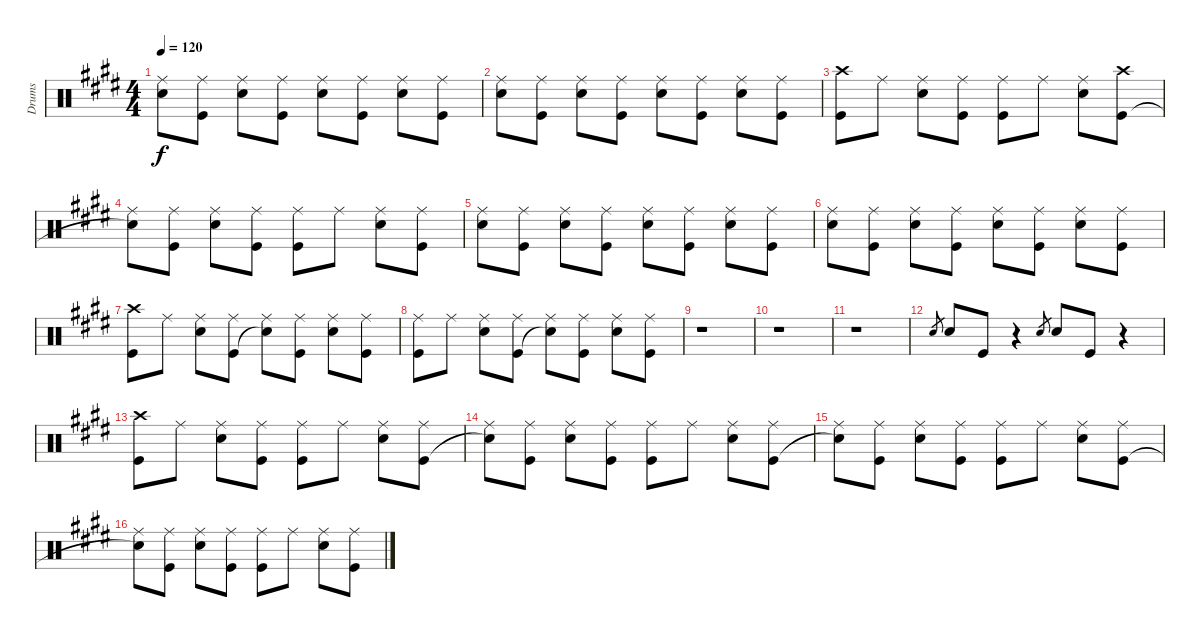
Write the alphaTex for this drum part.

\track ("Drums" "Drums") {instrument percussion}
\staff {score}
\articulation defaults
\ts (4 4)
\tempo 120
\clef neutral
\ks e
("Ride (middle)" "Snare (hit) 2").8{dy f} ("Ride (middle)" "Kick (hit)").8 ("Ride (middle)" "Snare (hit) 2").8 ("Ride (middle)" "Kick (hit)").8 ("Ride (middle)" "Snare (hit) 2").8 ("Ride (middle)" "Kick (hit)").8 ("Ride (middle)" "Snare (hit) 2").8 ("Ride (middle)" "Kick (hit)").8 |
("Ride (middle)" "Snare (hit) 2").8 ("Ride (middle)" "Kick (hit)").8 ("Ride (middle)" "Snare (hit) 2").8 ("Ride (middle)" "Kick (hit)").8 ("Ride (middle)" "Snare (hit) 2").8 ("Ride (middle)" "Kick (hit)").8 ("Ride (middle)" "Snare (hit) 2").8 ("Ride (middle)" "Kick (hit)").8 |
("Crash high (hit)" "Kick (hit)").8 "Ride (middle)".8 ("Ride (middle)" "Snare (hit) 2").8 ("Ride (middle)" "Kick (hit)").8 ("Ride (middle)" "Kick (hit)").8 "Ride (middle)".8 ("Ride (middle)" "Snare (hit) 2").8 ("Crash high (hit)" "Kick (hit)").8 |
("Ride (middle)" "Snare (hit)"{t}).8 ("Ride (middle)" "Kick (hit)").8 ("Ride (middle)" "Snare (hit) 2").8 ("Ride (middle)" "Kick (hit)").8 ("Ride (middle)" "Kick (hit)").8 "Ride (middle)".8 ("Ride (middle)" "Snare (hit) 2").8 ("Ride (middle)" "Kick (hit)").8 |
("Ride (middle)" "Snare (hit) 2").8 ("Ride (middle)" "Kick (hit)").8 ("Ride (middle)" "Snare (hit) 2").8 ("Ride (middle)" "Kick (hit)").8 ("Ride (middle)" "Snare (hit) 2").8 ("Ride (middle)" "Kick (hit)").8 ("Ride (middle)" "Snare (hit) 2").8 ("Ride (middle)" "Kick (hit)").8 |
("Ride (middle)" "Snare (hit) 2").8 ("Ride (middle)" "Kick (hit)").8 ("Ride (middle)" "Snare (hit) 2").8 ("Ride (middle)" "Kick (hit)").8 ("Ride (middle)" "Snare (hit) 2").8 ("Ride (middle)" "Kick (hit)").8 ("Ride (middle)" "Snare (hit) 2").8 ("Ride (middle)" "Kick (hit)").8 |
("Crash high (hit)" "Kick (hit)").8 "Ride (middle)".8 ("Ride (middle)" "Snare (hit) 2").8 ("Ride (middle)" "Kick (hit)").8 ("Ride (middle)" "Snare (hit)"{t}).8 ("Ride (middle)" "Kick (hit)").8 ("Ride (middle)" "Snare (hit) 2").8 ("Ride (middle)" "Kick (hit)").8 |
("Ride (middle)" "Kick (hit)").8 "Ride (middle)".8 ("Ride (middle)" "Snare (hit) 2").8 ("Ride (middle)" "Kick (hit)").8 ("Ride (middle)" "Snare (hit)"{t}).8 ("Ride (middle)" "Kick (hit)").8 ("Ride (middle)" "Snare (hit) 2").8 ("Ride (middle)" "Kick (hit)").8 |
r.1 |
r.1 |
r.1 |
"Snare (hit) 2".8{gr} "Snare (hit) 2".8 "Kick (hit)".8 r.4 "Snare (hit) 2".8{gr} "Snare (hit) 2".8 "Kick (hit)".8 r.4 |
("Crash high (hit)" "Kick (hit)").8 "Ride (middle)".8 ("Ride (middle)" "Snare (hit) 2").8 ("Ride (middle)" "Kick (hit)").8 ("Ride (middle)" "Kick (hit)").8 "Ride (middle)".8 ("Ride (middle)" "Snare (hit) 2").8 ("Ride (middle)" "Kick (hit)").8 |
("Ride (middle)" "Snare (hit)"{t}).8 ("Ride (middle)" "Kick (hit)").8 ("Ride (middle)" "Snare (hit) 2").8 ("Ride (middle)" "Kick (hit)").8 ("Ride (middle)" "Kick (hit)").8 "Ride (middle)".8 ("Ride (middle)" "Snare (hit) 2").8 ("Ride (middle)" "Kick (hit)").8 |
("Ride (middle)" "Snare (hit)"{t}).8 ("Ride (middle)" "Kick (hit)").8 ("Ride (middle)" "Snare (hit) 2").8 ("Ride (middle)" "Kick (hit)").8 ("Ride (middle)" "Kick (hit)").8 "Ride (middle)".8 ("Ride (middle)" "Snare (hit) 2").8 ("Ride (middle)" "Kick (hit)").8 |
("Ride (middle)" "Snare (hit)"{t}).8 ("Ride (middle)" "Kick (hit)").8 ("Ride (middle)" "Snare (hit) 2").8 ("Ride (middle)" "Kick (hit)").8 ("Ride (middle)" "Kick (hit)").8 "Ride (middle)".8 ("Ride (middle)" "Snare (hit) 2").8 ("Ride (middle)" "Kick (hit)").8
